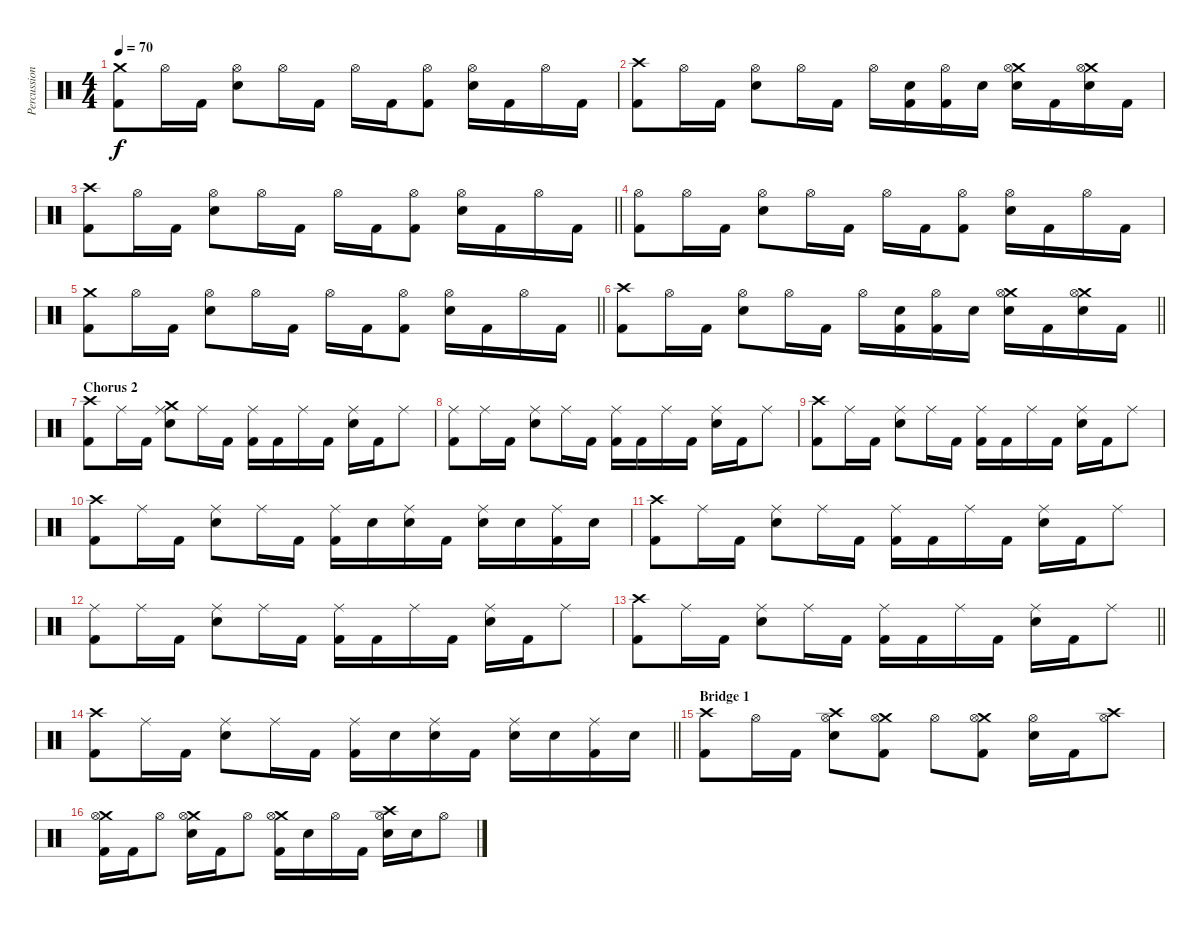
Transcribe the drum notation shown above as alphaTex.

\track ("Percussion" "Percussion") {instrument percussion}
\staff {score}
\articulation defaults
\ts (4 4)
\tempo 70
\clef neutral
\ks c
("Crash medium (hit)" "Kick (hit) 2").8{dy f} "Hi-Hat (open)".16 "Kick (hit) 2".16 ("Hi-Hat (open)" "Snare (hit) 2").8 "Hi-Hat (open)".16 "Kick (hit) 2".16 "Hi-Hat (open)".16 "Kick (hit) 2".16 ("Hi-Hat (open)" "Kick (hit) 2").8 ("Hi-Hat (open)" "Snare (hit) 2").16 "Kick (hit) 2".16 "Hi-Hat (open)".16 "Kick (hit) 2".16 |
("Crash high (hit)" "Kick (hit) 2").8 "Hi-Hat (open)".16 "Kick (hit) 2".16 ("Hi-Hat (open)" "Snare (hit) 2").8 "Hi-Hat (open)".16 "Kick (hit) 2".16 "Hi-Hat (open)".16 ("Snare (hit) 2" "Kick (hit) 2").16 ("Hi-Hat (open)" "Kick (hit) 2").16 "Snare (hit) 2".16 ("Crash medium (hit)" "Hi-Hat (open)" "Snare (hit) 2").16 "Kick (hit) 2".16 ("Crash medium (hit)" "Hi-Hat (open)" "Snare (hit) 2").16 "Kick (hit) 2".16 |
\barLineRight lightlight
("Crash high (hit)" "Kick (hit) 2").8 "Hi-Hat (open)".16 "Kick (hit) 2".16 ("Hi-Hat (open)" "Snare (hit) 2").8 "Hi-Hat (open)".16 "Kick (hit) 2".16 "Hi-Hat (open)".16 "Kick (hit) 2".16 ("Hi-Hat (open)" "Kick (hit) 2").8 ("Hi-Hat (open)" "Snare (hit) 2").16 "Kick (hit) 2".16 "Hi-Hat (open)".16 "Kick (hit) 2".16 |
("Hi-Hat (open)" "Kick (hit) 2").8 "Hi-Hat (open)".16 "Kick (hit) 2".16 ("Hi-Hat (open)" "Snare (hit) 2").8 "Hi-Hat (open)".16 "Kick (hit) 2".16 "Hi-Hat (open)".16 "Kick (hit) 2".16 ("Hi-Hat (open)" "Kick (hit) 2").8 ("Hi-Hat (open)" "Snare (hit) 2").16 "Kick (hit) 2".16 "Hi-Hat (open)".16 "Kick (hit) 2".16 |
\barLineRight lightlight
("Crash medium (hit)" "Kick (hit) 2").8 "Hi-Hat (open)".16 "Kick (hit) 2".16 ("Hi-Hat (open)" "Snare (hit) 2").8 "Hi-Hat (open)".16 "Kick (hit) 2".16 "Hi-Hat (open)".16 "Kick (hit) 2".16 ("Hi-Hat (open)" "Kick (hit) 2").8 ("Hi-Hat (open)" "Snare (hit) 2").16 "Kick (hit) 2".16 "Hi-Hat (open)".16 "Kick (hit) 2".16 |
\barLineRight lightlight
("Crash high (hit)" "Kick (hit) 2").8 "Hi-Hat (open)".16 "Kick (hit) 2".16 ("Hi-Hat (open)" "Snare (hit) 2").8 "Hi-Hat (open)".16 "Kick (hit) 2".16 "Hi-Hat (open)".16 ("Snare (hit) 2" "Kick (hit) 2").16 ("Hi-Hat (open)" "Kick (hit) 2").16 "Snare (hit) 2".16 ("Crash medium (hit)" "Hi-Hat (open)" "Snare (hit) 2").16 "Kick (hit) 2".16 ("Crash medium (hit)" "Hi-Hat (open)" "Snare (hit) 2").16 "Kick (hit) 2".16 |
\section ("" "Chorus 2")
("Crash high (hit)" "Kick (hit) 2").8 "Ride (middle)".16 "Kick (hit) 2".16 ("Crash medium (hit)" "Ride (middle)" "Snare (hit) 2").8 "Ride (middle)".16 "Kick (hit) 2".16 ("Ride (middle)" "Kick (hit) 2").16 "Kick (hit) 2".16 "Ride (middle)".16 "Kick (hit) 2".16 ("Ride (middle)" "Snare (hit) 2").16 "Kick (hit) 2".16 "Ride (middle)".8 |
("Ride (middle)" "Kick (hit) 2").8 "Ride (middle)".16 "Kick (hit) 2".16 ("Ride (middle)" "Snare (hit) 2").8 "Ride (middle)".16 "Kick (hit) 2".16 ("Ride (middle)" "Kick (hit) 2").16 "Kick (hit) 2".16 "Ride (middle)".16 "Kick (hit) 2".16 ("Ride (middle)" "Snare (hit) 2").16 "Kick (hit) 2".16 "Ride (middle)".8 |
("Crash high (hit)" "Kick (hit) 2").8 "Ride (middle)".16 "Kick (hit) 2".16 ("Ride (middle)" "Snare (hit) 2").8 "Ride (middle)".16 "Kick (hit) 2".16 ("Ride (middle)" "Kick (hit) 2").16 "Kick (hit) 2".16 "Ride (middle)".16 "Kick (hit) 2".16 ("Ride (middle)" "Snare (hit) 2").16 "Kick (hit) 2".16 "Ride (middle)".8 |
("Crash high (hit)" "Kick (hit) 2").8 "Ride (middle)".16 "Kick (hit) 2".16 ("Ride (middle)" "Snare (hit) 2").8 "Ride (middle)".16 "Kick (hit) 2".16 ("Ride (middle)" "Kick (hit) 2").16 "Snare (hit) 2".16 ("Ride (middle)" "Snare (hit) 2").16 "Kick (hit) 2".16 ("Ride (middle)" "Snare (hit) 2").16 "Snare (hit) 2".16 ("Ride (middle)" "Kick (hit) 2").16 "Snare (hit) 2".16 |
("Crash high (hit)" "Kick (hit) 2").8 "Ride (middle)".16 "Kick (hit) 2".16 ("Ride (middle)" "Snare (hit) 2").8 "Ride (middle)".16 "Kick (hit) 2".16 ("Ride (middle)" "Kick (hit) 2").16 "Kick (hit) 2".16 "Ride (middle)".16 "Kick (hit) 2".16 ("Ride (middle)" "Snare (hit) 2").16 "Kick (hit) 2".16 "Ride (middle)".8 |
("Ride (middle)" "Kick (hit) 2").8 "Ride (middle)".16 "Kick (hit) 2".16 ("Ride (middle)" "Snare (hit) 2").8 "Ride (middle)".16 "Kick (hit) 2".16 ("Ride (middle)" "Kick (hit) 2").16 "Kick (hit) 2".16 "Ride (middle)".16 "Kick (hit) 2".16 ("Ride (middle)" "Snare (hit) 2").16 "Kick (hit) 2".16 "Ride (middle)".8 |
\barLineRight lightlight
("Crash high (hit)" "Kick (hit) 2").8 "Ride (middle)".16 "Kick (hit) 2".16 ("Ride (middle)" "Snare (hit) 2").8 "Ride (middle)".16 "Kick (hit) 2".16 ("Ride (middle)" "Kick (hit) 2").16 "Kick (hit) 2".16 "Ride (middle)".16 "Kick (hit) 2".16 ("Ride (middle)" "Snare (hit) 2").16 "Kick (hit) 2".16 "Ride (middle)".8 |
\barLineRight lightlight
("Crash high (hit)" "Kick (hit) 2").8 "Ride (middle)".16 "Kick (hit) 2".16 ("Ride (middle)" "Snare (hit) 2").8 "Ride (middle)".16 "Kick (hit) 2".16 ("Ride (middle)" "Kick (hit) 2").16 "Snare (hit) 2".16 ("Ride (middle)" "Snare (hit) 2").16 "Kick (hit) 2".16 ("Ride (middle)" "Snare (hit) 2").16 "Snare (hit) 2".16 ("Ride (middle)" "Kick (hit) 2").16 "Snare (hit) 2".16 |
\section ("" "Bridge 1")
("Crash high (hit)" "Kick (hit) 2").8 "Hi-Hat (open)".16 "Kick (hit) 2".16 ("Crash high (hit)" "Hi-Hat (open)" "Snare (hit) 2").8 ("Crash medium (hit)" "Hi-Hat (open)" "Kick (hit) 2").8 "Hi-Hat (open)".8 ("Crash medium (hit)" "Hi-Hat (open)" "Kick (hit) 2").8 ("Hi-Hat (open)" "Snare (hit) 2").16 "Kick (hit) 2".16 ("Crash high (hit)" "Hi-Hat (open)").8 |
("Crash medium (hit)" "Hi-Hat (open)" "Kick (hit) 2").16 "Kick (hit) 2".16 "Hi-Hat (open)".8 ("Crash medium (hit)" "Hi-Hat (open)" "Snare (hit) 2").16 "Kick (hit) 2".16 "Hi-Hat (open)".8 ("Crash medium (hit)" "Hi-Hat (open)" "Kick (hit) 2").16 "Snare (hit) 2".16 "Hi-Hat (open)".16 "Kick (hit) 2".16 ("Crash high (hit)" "Hi-Hat (open)" "Snare (hit) 2").16 "Snare (hit) 2".16 "Hi-Hat (open)".8
